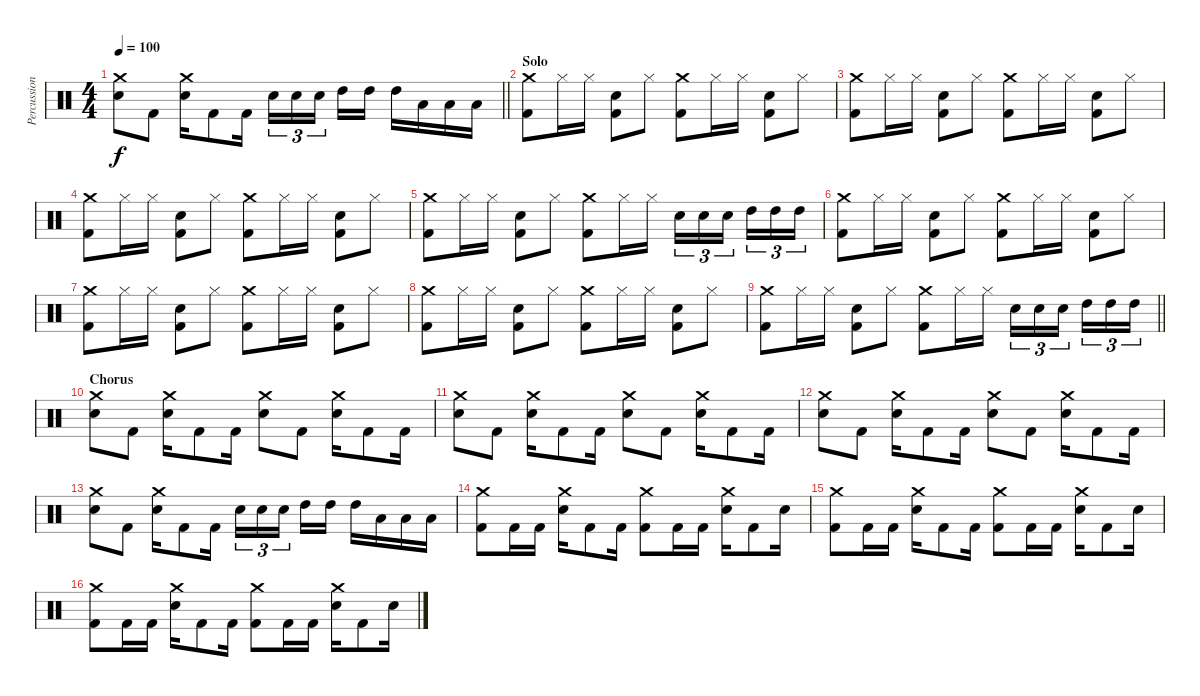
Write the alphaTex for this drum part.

\track ("Percussion" "Percussion") {instrument percussion}
\staff {score}
\articulation defaults
\ts (4 4)
\tempo 100
\clef neutral
\barLineRight lightlight
\ks c
("Snare (hit) 2" "Crash medium (hit)").8{dy f} "Kick (hit) 2".8 ("Snare (hit) 2" "Crash medium (hit)").16 "Kick (hit) 2".8 "Kick (hit) 2".16 "Snare (hit) 2".16{tu (3 2)} "Snare (hit) 2".16{tu (3 2)} "Snare (hit) 2".16{tu (3 2) beam splitsecondary} "High Tom (hit)".16 "High Tom (hit)".16 "High Tom (hit)".16 "Low Tom (hit)".16 "Low Tom (hit)".16 "Low Floor Tom (hit)".16 |
\section ("" "Solo")
("Crash medium (hit)" "Kick (hit) 2").8 "Hi-Hat (closed)".16 "Hi-Hat (closed)".16 ("Snare (hit) 2" "Kick (hit) 2").8 "Hi-Hat (closed)".8 ("Crash medium (hit)" "Kick (hit) 2").8 "Hi-Hat (closed)".16 "Hi-Hat (closed)".16 ("Snare (hit) 2" "Kick (hit) 2").8 "Hi-Hat (closed)".8 |
("Crash medium (hit)" "Kick (hit) 2").8 "Hi-Hat (closed)".16 "Hi-Hat (closed)".16 ("Snare (hit) 2" "Kick (hit) 2").8 "Hi-Hat (closed)".8 ("Crash medium (hit)" "Kick (hit) 2").8 "Hi-Hat (closed)".16 "Hi-Hat (closed)".16 ("Snare (hit) 2" "Kick (hit) 2").8 "Hi-Hat (closed)".8 |
("Crash medium (hit)" "Kick (hit) 2").8 "Hi-Hat (closed)".16 "Hi-Hat (closed)".16 ("Snare (hit) 2" "Kick (hit) 2").8 "Hi-Hat (closed)".8 ("Crash medium (hit)" "Kick (hit) 2").8 "Hi-Hat (closed)".16 "Hi-Hat (closed)".16 ("Snare (hit) 2" "Kick (hit) 2").8 "Hi-Hat (closed)".8 |
("Crash medium (hit)" "Kick (hit) 2").8 "Hi-Hat (closed)".16 "Hi-Hat (closed)".16 ("Snare (hit) 2" "Kick (hit) 2").8 "Hi-Hat (closed)".8 ("Crash medium (hit)" "Kick (hit) 2").8 "Hi-Hat (closed)".16 "Hi-Hat (closed)".16 "Snare (hit) 2".16{tu (3 2)} "Snare (hit) 2".16{tu (3 2)} "Snare (hit) 2".16{tu (3 2) beam splitsecondary} "High Tom (hit)".16{tu (3 2)} "High Tom (hit)".16{tu (3 2)} "High Tom (hit)".16{tu (3 2)} |
("Crash medium (hit)" "Kick (hit) 2").8 "Hi-Hat (closed)".16 "Hi-Hat (closed)".16 ("Snare (hit) 2" "Kick (hit) 2").8 "Hi-Hat (closed)".8 ("Crash medium (hit)" "Kick (hit) 2").8 "Hi-Hat (closed)".16 "Hi-Hat (closed)".16 ("Snare (hit) 2" "Kick (hit) 2").8 "Hi-Hat (closed)".8 |
("Crash medium (hit)" "Kick (hit) 2").8 "Hi-Hat (closed)".16 "Hi-Hat (closed)".16 ("Snare (hit) 2" "Kick (hit) 2").8 "Hi-Hat (closed)".8 ("Crash medium (hit)" "Kick (hit) 2").8 "Hi-Hat (closed)".16 "Hi-Hat (closed)".16 ("Snare (hit) 2" "Kick (hit) 2").8 "Hi-Hat (closed)".8 |
("Crash medium (hit)" "Kick (hit) 2").8 "Hi-Hat (closed)".16 "Hi-Hat (closed)".16 ("Snare (hit) 2" "Kick (hit) 2").8 "Hi-Hat (closed)".8 ("Crash medium (hit)" "Kick (hit) 2").8 "Hi-Hat (closed)".16 "Hi-Hat (closed)".16 ("Snare (hit) 2" "Kick (hit) 2").8 "Hi-Hat (closed)".8 |
\barLineRight lightlight
("Crash medium (hit)" "Kick (hit) 2").8 "Hi-Hat (closed)".16 "Hi-Hat (closed)".16 ("Snare (hit) 2" "Kick (hit) 2").8 "Hi-Hat (closed)".8 ("Crash medium (hit)" "Kick (hit) 2").8 "Hi-Hat (closed)".16 "Hi-Hat (closed)".16 "Snare (hit) 2".16{tu (3 2)} "Snare (hit) 2".16{tu (3 2)} "Snare (hit) 2".16{tu (3 2) beam splitsecondary} "High Tom (hit)".16{tu (3 2)} "High Tom (hit)".16{tu (3 2)} "High Tom (hit)".16{tu (3 2)} |
\section ("" "Chorus")
("Snare (hit) 2" "Crash medium (hit)").8 "Kick (hit) 2".8 ("Snare (hit) 2" "Crash medium (hit)").16 "Kick (hit) 2".8 "Kick (hit) 2".16 ("Snare (hit) 2" "Crash medium (hit)").8 "Kick (hit) 2".8 ("Snare (hit) 2" "Crash medium (hit)").16 "Kick (hit) 2".8 "Kick (hit) 2".16 |
("Snare (hit) 2" "Crash medium (hit)").8 "Kick (hit) 2".8 ("Snare (hit) 2" "Crash medium (hit)").16 "Kick (hit) 2".8 "Kick (hit) 2".16 ("Snare (hit) 2" "Crash medium (hit)").8 "Kick (hit) 2".8 ("Snare (hit) 2" "Crash medium (hit)").16 "Kick (hit) 2".8 "Kick (hit) 2".16 |
("Snare (hit) 2" "Crash medium (hit)").8 "Kick (hit) 2".8 ("Snare (hit) 2" "Crash medium (hit)").16 "Kick (hit) 2".8 "Kick (hit) 2".16 ("Snare (hit) 2" "Crash medium (hit)").8 "Kick (hit) 2".8 ("Snare (hit) 2" "Crash medium (hit)").16 "Kick (hit) 2".8 "Kick (hit) 2".16 |
("Snare (hit) 2" "Crash medium (hit)").8 "Kick (hit) 2".8 ("Snare (hit) 2" "Crash medium (hit)").16 "Kick (hit) 2".8 "Kick (hit) 2".16 "Snare (hit) 2".16{tu (3 2)} "Snare (hit) 2".16{tu (3 2)} "Snare (hit) 2".16{tu (3 2) beam splitsecondary} "High Tom (hit)".16 "High Tom (hit)".16 "High Tom (hit)".16 "Low Tom (hit)".16 "Low Tom (hit)".16 "Low Floor Tom (hit)".16 |
("Kick (hit) 2" "Crash medium (hit)").8 "Kick (hit) 2".16 "Kick (hit) 2".16 ("Snare (hit) 2" "Crash medium (hit)").16 "Kick (hit) 2".8 "Kick (hit) 2".16 ("Kick (hit) 2" "Crash medium (hit)").8 "Kick (hit) 2".16 "Kick (hit) 2".16 ("Snare (hit) 2" "Crash medium (hit)").16 "Kick (hit) 2".8 "Snare (hit) 2".16 |
("Kick (hit) 2" "Crash medium (hit)").8 "Kick (hit) 2".16 "Kick (hit) 2".16 ("Snare (hit) 2" "Crash medium (hit)").16 "Kick (hit) 2".8 "Kick (hit) 2".16 ("Kick (hit) 2" "Crash medium (hit)").8 "Kick (hit) 2".16 "Kick (hit) 2".16 ("Snare (hit) 2" "Crash medium (hit)").16 "Kick (hit) 2".8 "Snare (hit) 2".16 |
("Kick (hit) 2" "Crash medium (hit)").8 "Kick (hit) 2".16 "Kick (hit) 2".16 ("Snare (hit) 2" "Crash medium (hit)").16 "Kick (hit) 2".8 "Kick (hit) 2".16 ("Kick (hit) 2" "Crash medium (hit)").8 "Kick (hit) 2".16 "Kick (hit) 2".16 ("Snare (hit) 2" "Crash medium (hit)").16 "Kick (hit) 2".8 "Snare (hit) 2".16
